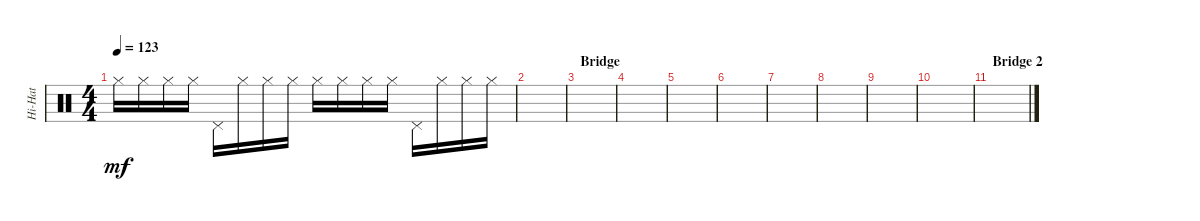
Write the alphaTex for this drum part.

\track ("Hi-Hat" "Hi-Hat") {instrument percussion}
\staff {score}
\articulation defaults
\ts (4 4)
\tempo 123
\clef neutral
\ks c "Hi-Hat (closed)".16{dy mf} "Hi-Hat (closed)".16 "Hi-Hat (closed)".16 "Hi-Hat (closed)".16 "Pedal Hi-Hat (hit)".16 "Hi-Hat (closed)".16 "Hi-Hat (closed)".16 "Hi-Hat (closed)".16 "Hi-Hat (closed)".16 "Hi-Hat (closed)".16 "Hi-Hat (closed)".16 "Hi-Hat (closed)".16 "Pedal Hi-Hat (hit)".16 "Hi-Hat (closed)".16 "Hi-Hat (closed)".16 "Hi-Hat (closed)".16
|
|
\section ("" "Bridge")
|
|
|
|
|
|
|
|
\section ("" "Bridge 2")
